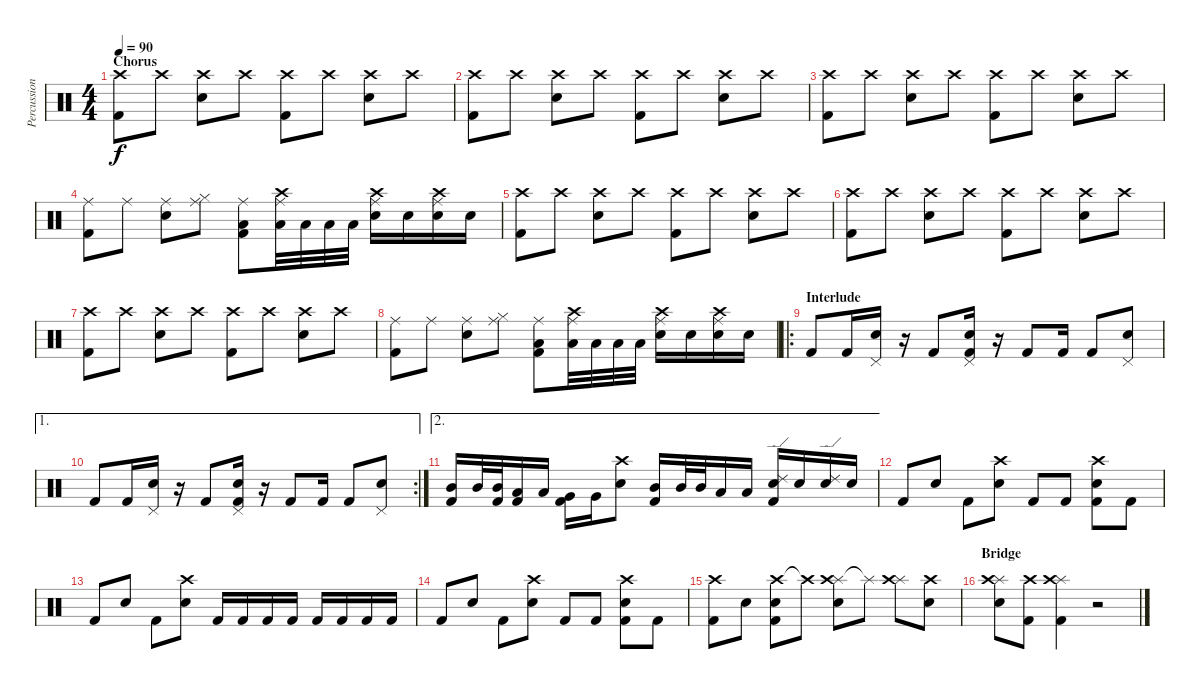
\track ("Percussion" "Percussion") {instrument percussion}
\staff {score}
\articulation defaults
\ts (4 4)
\section ("" "Chorus")
\tempo 90
\clef neutral
\ks c
("Crash high (hit)" "Kick (hit) 2").8{dy f} "Crash high (hit)".8 ("Crash high (hit)" "Electric Snare (hit)").8 "Crash high (hit)".8 ("Crash high (hit)" "Kick (hit) 2").8 "Crash high (hit)".8 ("Crash high (hit)" "Electric Snare (hit)").8 "Crash high (hit)".8 |
("Crash high (hit)" "Kick (hit) 2").8 "Crash high (hit)".8 ("Crash high (hit)" "Electric Snare (hit)").8 "Crash high (hit)".8 ("Crash high (hit)" "Kick (hit) 2").8 "Crash high (hit)".8 ("Crash high (hit)" "Electric Snare (hit)").8 "Crash high (hit)".8 |
("Crash high (hit)" "Kick (hit) 2").8 "Crash high (hit)".8 ("Crash high (hit)" "Electric Snare (hit)").8 "Crash high (hit)".8 ("Crash high (hit)" "Kick (hit) 2").8 "Crash high (hit)".8 ("Crash high (hit)" "Electric Snare (hit)").8 "Crash high (hit)".8 |
("Ride (middle)" "Kick (hit) 2").8 "Ride (middle)".8 ("Ride (middle)" "Electric Snare (hit)").8 ("Ride (middle)" "Hi-Hat (closed)").8 ("Ride (middle)" "Low Tom (hit)" "Kick (hit) 2").8 ("Crash high (hit)" "Ride (middle)" "Low Tom (hit)").32 "Low Tom (hit)".32 "Low Tom (hit)".32 "Low Tom (hit)".32 ("Crash high (hit)" "Ride (middle)" "Electric Snare (hit)").16 "Electric Snare (hit)".16 ("Crash high (hit)" "Ride (middle)" "Electric Snare (hit)").16 "Electric Snare (hit)".16 |
("Crash high (hit)" "Kick (hit) 2").8 "Crash high (hit)".8 ("Crash high (hit)" "Electric Snare (hit)").8 "Crash high (hit)".8 ("Crash high (hit)" "Kick (hit) 2").8 "Crash high (hit)".8 ("Crash high (hit)" "Electric Snare (hit)").8 "Crash high (hit)".8 |
("Crash high (hit)" "Kick (hit) 2").8 "Crash high (hit)".8 ("Crash high (hit)" "Electric Snare (hit)").8 "Crash high (hit)".8 ("Crash high (hit)" "Kick (hit) 2").8 "Crash high (hit)".8 ("Crash high (hit)" "Electric Snare (hit)").8 "Crash high (hit)".8 |
("Crash high (hit)" "Kick (hit) 2").8 "Crash high (hit)".8 ("Crash high (hit)" "Electric Snare (hit)").8 "Crash high (hit)".8 ("Crash high (hit)" "Kick (hit) 2").8 "Crash high (hit)".8 ("Crash high (hit)" "Electric Snare (hit)").8 "Crash high (hit)".8 |
("Ride (middle)" "Kick (hit) 2").8 "Ride (middle)".8 ("Ride (middle)" "Electric Snare (hit)").8 ("Ride (middle)" "Hi-Hat (closed)").8 ("Ride (middle)" "Low Tom (hit)" "Kick (hit) 2").8 ("Crash high (hit)" "Ride (middle)" "Low Tom (hit)").32 "Low Tom (hit)".32 "Low Tom (hit)".32 "Low Tom (hit)".32 ("Crash high (hit)" "Ride (middle)" "Electric Snare (hit)").16 "Electric Snare (hit)".16 ("Crash high (hit)" "Ride (middle)" "Electric Snare (hit)").16 "Electric Snare (hit)".16 |
\ro
\section ("" "Interlude")
"Kick (hit) 2".8 "Kick (hit) 2".16 ("Pedal Hi-Hat (hit)" "Electric Snare (hit)").16 r.16 "Kick (hit) 2".8 ("Pedal Hi-Hat (hit)" "Electric Snare (hit)" "Kick (hit) 2").16 r.16 "Kick (hit) 2".8 "Kick (hit) 2".16 "Kick (hit) 2".8 ("Pedal Hi-Hat (hit)" "Electric Snare (hit)").8 |
\ae 1
\rc 2 "Kick (hit) 2".8 "Kick (hit) 2".16
("Pedal Hi-Hat (hit)" "Electric Snare (hit)").16 r.16 "Kick (hit) 2".8 ("Pedal Hi-Hat (hit)" "Electric Snare (hit)" "Kick (hit) 2").16 r.16 "Kick (hit) 2".8 "Kick (hit) 2".16 "Kick (hit) 2".8 ("Pedal Hi-Hat (hit)" "Electric Snare (hit)").8 |
\ae 2
("Mid Tom (hit)" "Kick (hit) 2").16 "Mid Tom (hit)".32 ("Mid Tom (hit)" "Kick (hit) 2").32 ("Low Tom (hit)" "Kick (hit) 2").16 "Low Tom (hit)".16 ("Very Low Tom (hit)" "Kick (hit) 2").16 "Very Low Tom (hit)".16 ("Crash high (hit)" "Electric Snare (hit)").8 ("Mid Tom (hit)" "Kick (hit) 2").16 "Mid Tom (hit)".32 "Mid Tom (hit)".32 "Low Tom (hit)".16 "Low Tom (hit)".16 ("Ride (edge) 2" "Electric Snare (hit)" "Kick (hit) 2").16 "Electric Snare (hit)".16 ("Ride (edge) 2" "Electric Snare (hit)").16 "Electric Snare (hit)".16 |
"Kick (hit) 2".8 "Electric Snare (hit)".8 "Kick (hit) 2".8 ("Crash high (hit)" "Electric Snare (hit)").8 "Kick (hit) 2".8 "Kick (hit) 2".8 ("Crash high (hit)" "Electric Snare (hit)" "Kick (hit) 2").8 "Kick (hit) 2".8 |
"Kick (hit) 2".8 "Electric Snare (hit)".8 "Kick (hit) 2".8 ("Crash high (hit)" "Electric Snare (hit)").8 "Kick (hit) 2".16 "Kick (hit) 2".16 "Kick (hit) 2".16 "Kick (hit) 2".16 "Kick (hit) 2".16 "Kick (hit) 2".16 "Kick (hit) 2".16 "Kick (hit) 2".16 |
"Kick (hit) 2".8 "Electric Snare (hit)".8 "Kick (hit) 2".8 ("Crash high (hit)" "Electric Snare (hit)").8 "Kick (hit) 2".8 "Kick (hit) 2".8 ("Crash high (hit)" "Electric Snare (hit)" "Kick (hit) 2").8 "Kick (hit) 2".8 |
("Crash high (hit)" "Kick (hit) 2").8 "Electric Snare (hit)".8 ("Crash high (hit)" "Electric Snare (hit)" "Kick (hit) 2").8 "Crash high (hit)"{t}.8 ("Splash (hit)" "Crash high (hit)" "Electric Snare (hit)").8 "Splash (hit)"{t}.8 ("Splash (hit)" "Crash high (hit)").8 ("Crash high (hit)" "Electric Snare (hit)").8 |
\section ("" "Bridge")
("Splash (hit)" "Crash high (hit)" "Electric Snare (hit)").8 ("Crash high (hit)" "Kick (hit) 2").8 ("Splash (hit)" "Crash high (hit)" "Kick (hit) 2").4 r.2
